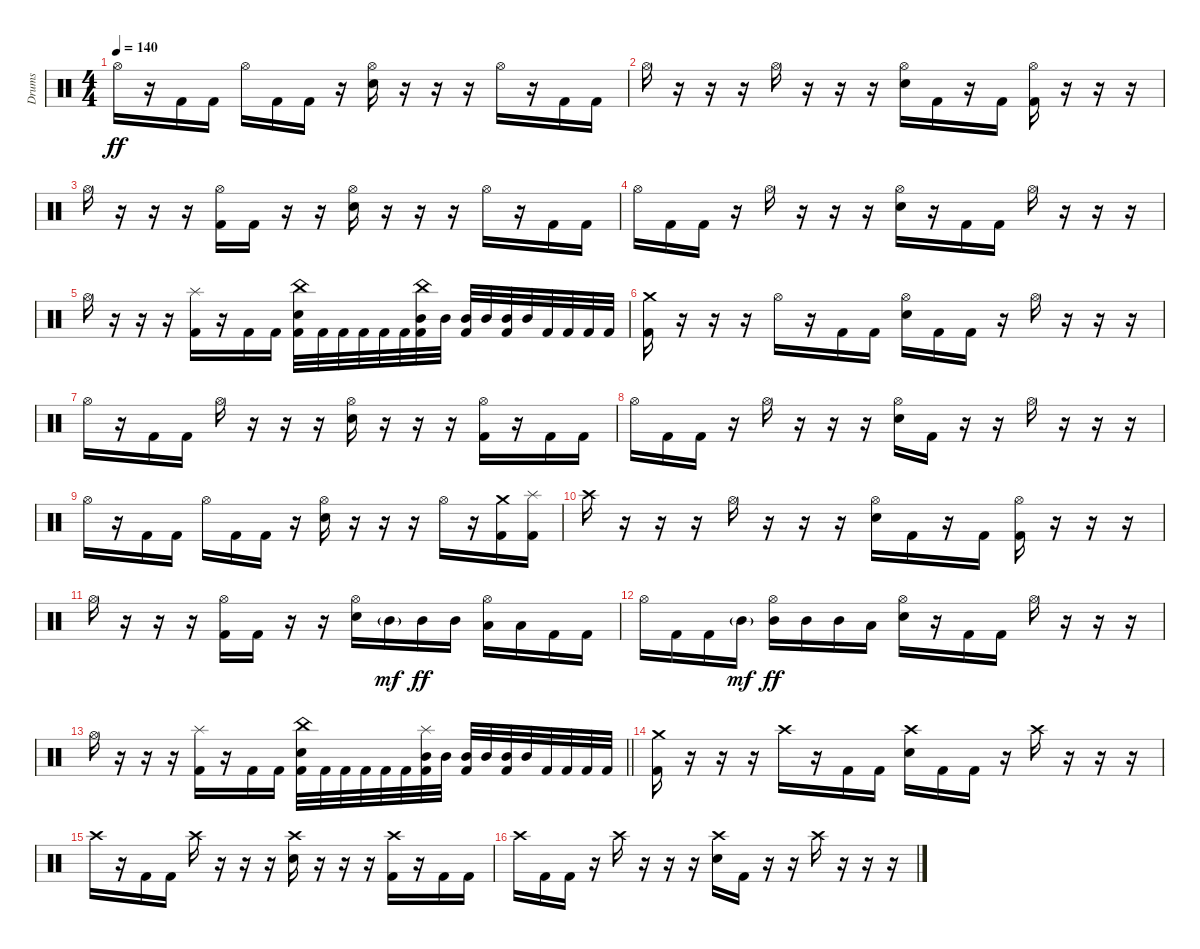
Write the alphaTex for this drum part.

\track ("Drums" "Drums") {instrument percussion}
\staff {score}
\articulation defaults
\ts (4 4)
\tempo 140
\clef neutral
\ks c "Hi-Hat (open)".16{dy ff}
r.16 "Kick (hit) 2".16 "Kick (hit) 2".16 "Hi-Hat (open)".16 "Kick (hit) 2".16 "Kick (hit) 2".16 r.16 ("Hi-Hat (open)" "Electric Snare (hit)").16 r.16 r.16 r.16 "Hi-Hat (open)".16 r.16 "Kick (hit) 2".16 "Kick (hit) 2".16 |
"Hi-Hat (open)".16 r.16 r.16 r.16 "Hi-Hat (open)".16 r.16 r.16 r.16 ("Hi-Hat (open)" "Electric Snare (hit)").16 "Kick (hit) 2".16 r.16 "Kick (hit) 2".16 ("Hi-Hat (open)" "Kick (hit) 2").16 r.16 r.16 r.16 |
"Hi-Hat (open)".16 r.16 r.16 r.16 ("Hi-Hat (open)" "Kick (hit) 2").16 "Kick (hit) 2".16 r.16 r.16 ("Hi-Hat (open)" "Electric Snare (hit)").16 r.16 r.16 r.16 "Hi-Hat (open)".16 r.16 "Kick (hit) 2".16 "Kick (hit) 2".16 |
"Hi-Hat (open)".16 "Kick (hit) 2".16 "Kick (hit) 2".16 r.16 "Hi-Hat (open)".16 r.16 r.16 r.16 ("Hi-Hat (open)" "Electric Snare (hit)").16 r.16 "Kick (hit) 2".16 "Kick (hit) 2".16 "Hi-Hat (open)".16 r.16 r.16 r.16 |
"Hi-Hat (open)".16 r.16 r.16 r.16 ("Splash (hit)" "Kick (hit) 2").16 r.16 "Kick (hit) 2".16 "Kick (hit) 2".16 ("China (hit)" "Electric Snare (hit)" "Kick (hit) 2").32 "Kick (hit) 2".32 "Kick (hit) 2".32 "Kick (hit) 2".32 "Kick (hit) 2".32 "Kick (hit) 2".32 ("China (hit)" "Mid Tom (hit)" "Kick (hit) 2").32 "Mid Tom (hit)".32 ("Mid Tom (hit)" "Kick (hit) 2").32 "Mid Tom (hit)".32 ("Mid Tom (hit)" "Kick (hit) 2").32 "Mid Tom (hit)".32 "Kick (hit) 2".32 "Kick (hit) 2".32 "Kick (hit) 2".32 "Kick (hit) 2".32 |
("Crash medium (hit)" "Kick (hit) 2").16 r.16 r.16 r.16 "Hi-Hat (open)".16 r.16 "Kick (hit) 2".16 "Kick (hit) 2".16 ("Hi-Hat (open)" "Electric Snare (hit)").16 "Kick (hit) 2".16 "Kick (hit) 2".16 r.16 "Hi-Hat (open)".16 r.16 r.16 r.16 |
"Hi-Hat (open)".16 r.16 "Kick (hit) 2".16 "Kick (hit) 2".16 "Hi-Hat (open)".16 r.16 r.16 r.16 ("Hi-Hat (open)" "Electric Snare (hit)").16 r.16 r.16 r.16 ("Hi-Hat (open)" "Kick (hit) 2").16 r.16 "Kick (hit) 2".16 "Kick (hit) 2".16 |
"Hi-Hat (open)".16 "Kick (hit) 2".16 "Kick (hit) 2".16 r.16 "Hi-Hat (open)".16 r.16 r.16 r.16 ("Hi-Hat (open)" "Electric Snare (hit)").16 "Kick (hit) 2".16 r.16 r.16 "Hi-Hat (open)".16 r.16 r.16 r.16 |
"Hi-Hat (open)".16 r.16 "Kick (hit) 2".16 "Kick (hit) 2".16 "Hi-Hat (open)".16 "Kick (hit) 2".16 "Kick (hit) 2".16 r.16 ("Hi-Hat (open)" "Electric Snare (hit)").16 r.16 r.16 r.16 "Hi-Hat (open)".16 r.16 ("Crash medium (hit)" "Kick (hit) 2").16 ("Splash (hit)" "Kick (hit) 2").16 |
"Crash high (hit)".16 r.16 r.16 r.16 "Hi-Hat (open)".16 r.16 r.16 r.16 ("Hi-Hat (open)" "Electric Snare (hit)").16 "Kick (hit) 2".16 r.16 "Kick (hit) 2".16 ("Hi-Hat (open)" "Kick (hit) 2").16 r.16 r.16 r.16 |
"Hi-Hat (open)".16 r.16 r.16 r.16 ("Hi-Hat (open)" "Kick (hit) 2").16 "Kick (hit) 2".16 r.16 r.16 ("Hi-Hat (open)" "Electric Snare (hit)").16 "Mid Tom (hit)"{g}.16{dy mf} "Mid Tom (hit)".16{dy ff} "Mid Tom (hit)".16 ("Hi-Hat (open)" "Low Tom (hit)").16 "Low Floor Tom (hit)".16 "Kick (hit) 2".16 "Kick (hit) 2".16 |
"Hi-Hat (open)".16 "Kick (hit) 2".16 "Kick (hit) 2".16 "Mid Tom (hit)"{g}.16{dy mf} ("Mid Tom (hit)" "Hi-Hat (open)").16{dy ff} "Mid Tom (hit)".16 "Mid Tom (hit)".16 "Low Tom (hit)".16 ("Hi-Hat (open)" "Electric Snare (hit)").16 r.16 "Kick (hit) 2".16 "Kick (hit) 2".16 "Hi-Hat (open)".16 r.16 r.16 r.16 |
\barLineRight lightlight "Hi-Hat (open)".16
r.16 r.16 r.16 ("Splash (hit)" "Kick (hit) 2").16 r.16 "Kick (hit) 2".16 "Kick (hit) 2".16 ("China (hit)" "Electric Snare (hit)" "Kick (hit) 2").32 "Kick (hit) 2".32 "Kick (hit) 2".32 "Kick (hit) 2".32 "Kick (hit) 2".32 "Kick (hit) 2".32 ("Splash (hit)" "Mid Tom (hit)" "Kick (hit) 2").32 "Mid Tom (hit)".32 ("Mid Tom (hit)" "Kick (hit) 2").32 "Mid Tom (hit)".32 ("Mid Tom (hit)" "Kick (hit) 2").32 "Mid Tom (hit)".32 "Kick (hit) 2".32 "Kick (hit) 2".32 "Kick (hit) 2".32 "Kick (hit) 2".32 |
\section ("" "")
("Crash medium (hit)" "Kick (hit) 2").16 r.16 r.16 r.16 "Crash high (hit)".16 r.16 "Kick (hit) 2".16 "Kick (hit) 2".16 ("Crash high (hit)" "Electric Snare (hit)").16 "Kick (hit) 2".16 "Kick (hit) 2".16 r.16 "Crash high (hit)".16 r.16 r.16 r.16 |
"Crash high (hit)".16 r.16 "Kick (hit) 2".16 "Kick (hit) 2".16 "Crash high (hit)".16 r.16 r.16 r.16 ("Crash high (hit)" "Electric Snare (hit)").16 r.16 r.16 r.16 ("Crash high (hit)" "Kick (hit) 2").16 r.16 "Kick (hit) 2".16 "Kick (hit) 2".16 |
"Crash high (hit)".16 "Kick (hit) 2".16 "Kick (hit) 2".16 r.16 "Crash high (hit)".16 r.16 r.16 r.16 ("Crash high (hit)" "Electric Snare (hit)").16 "Kick (hit) 2".16 r.16 r.16 "Crash high (hit)".16 r.16 r.16 r.16
